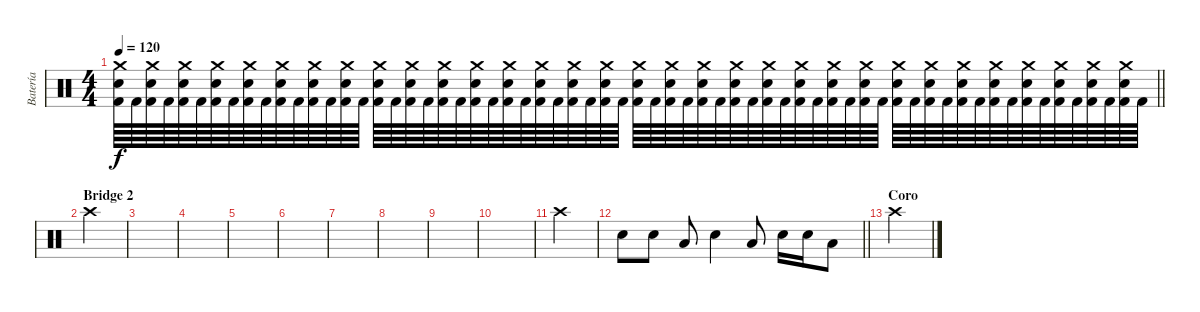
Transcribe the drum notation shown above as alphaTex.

\track ("Batería" "Batería") {instrument percussion}
\staff {score}
\articulation defaults
\ts (4 4)
\tempo 120
\clef neutral
\barLineRight lightlight
\ks c
("Crash medium (hit)" "Electric Snare (hit)" "Kick (hit) 2").64{dy f} "Kick (hit) 2".64 ("Crash medium (hit)" "Electric Snare (hit)" "Kick (hit) 2").64 "Kick (hit) 2".64 ("Crash medium (hit)" "Electric Snare (hit)" "Kick (hit) 2").64 "Kick (hit) 2".64 ("Crash medium (hit)" "Electric Snare (hit)" "Kick (hit) 2").64 "Kick (hit) 2".64 ("Crash medium (hit)" "Electric Snare (hit)" "Kick (hit) 2").64 "Kick (hit) 2".64 ("Crash medium (hit)" "Electric Snare (hit)" "Kick (hit) 2").64 "Kick (hit) 2".64 ("Crash medium (hit)" "Electric Snare (hit)" "Kick (hit) 2").64 "Kick (hit) 2".64 ("Crash medium (hit)" "Electric Snare (hit)" "Kick (hit) 2").64 "Kick (hit) 2".64 ("Crash medium (hit)" "Electric Snare (hit)" "Kick (hit) 2").64 "Kick (hit) 2".64 ("Crash medium (hit)" "Electric Snare (hit)" "Kick (hit) 2").64 "Kick (hit) 2".64 ("Crash medium (hit)" "Electric Snare (hit)" "Kick (hit) 2").64 "Kick (hit) 2".64 ("Crash medium (hit)" "Electric Snare (hit)" "Kick (hit) 2").64 "Kick (hit) 2".64 ("Crash medium (hit)" "Electric Snare (hit)" "Kick (hit) 2").64 "Kick (hit) 2".64 ("Crash medium (hit)" "Electric Snare (hit)" "Kick (hit) 2").64 "Kick (hit) 2".64 ("Crash medium (hit)" "Electric Snare (hit)" "Kick (hit) 2").64 "Kick (hit) 2".64 ("Crash medium (hit)" "Electric Snare (hit)" "Kick (hit) 2").64 "Kick (hit) 2".64 ("Crash medium (hit)" "Electric Snare (hit)" "Kick (hit) 2").64 "Kick (hit) 2".64 ("Crash medium (hit)" "Electric Snare (hit)" "Kick (hit) 2").64 "Kick (hit) 2".64 ("Crash medium (hit)" "Electric Snare (hit)" "Kick (hit) 2").64 "Kick (hit) 2".64 ("Crash medium (hit)" "Electric Snare (hit)" "Kick (hit) 2").64 "Kick (hit) 2".64 ("Crash medium (hit)" "Electric Snare (hit)" "Kick (hit) 2").64 "Kick (hit) 2".64 ("Crash medium (hit)" "Electric Snare (hit)" "Kick (hit) 2").64 "Kick (hit) 2".64 ("Crash medium (hit)" "Electric Snare (hit)" "Kick (hit) 2").64 "Kick (hit) 2".64 ("Crash medium (hit)" "Electric Snare (hit)" "Kick (hit) 2").64 "Kick (hit) 2".64 ("Crash medium (hit)" "Electric Snare (hit)" "Kick (hit) 2").64 "Kick (hit) 2".64 ("Crash medium (hit)" "Electric Snare (hit)" "Kick (hit) 2").64 "Kick (hit) 2".64 ("Crash medium (hit)" "Electric Snare (hit)" "Kick (hit) 2").64 "Kick (hit) 2".64 ("Crash medium (hit)" "Electric Snare (hit)" "Kick (hit) 2").64 "Kick (hit) 2".64 ("Crash medium (hit)" "Electric Snare (hit)" "Kick (hit) 2").64 "Kick (hit) 2".64 ("Crash medium (hit)" "Electric Snare (hit)" "Kick (hit) 2").64 "Kick (hit) 2".64 ("Crash medium (hit)" "Electric Snare (hit)" "Kick (hit) 2").64 "Kick (hit) 2".64 ("Crash medium (hit)" "Electric Snare (hit)" "Kick (hit) 2").64 "Kick (hit) 2".64 |
\section ("" "Bridge 2")
"Crash high (hit)".4 |
|
|
|
|
|
|
|
|
"Crash high (hit)".4 |
\barLineRight lightlight "Snare (hit) 2".8 "Snare (hit) 2".8 "Low Tom (hit)".8 "Snare (hit) 2".4 "Low Tom (hit)".8 "Snare (hit) 2".16 "Snare (hit) 2".16 "Low Tom (hit)".8
|
\section ("" "Coro ")
"Crash high (hit)".4
